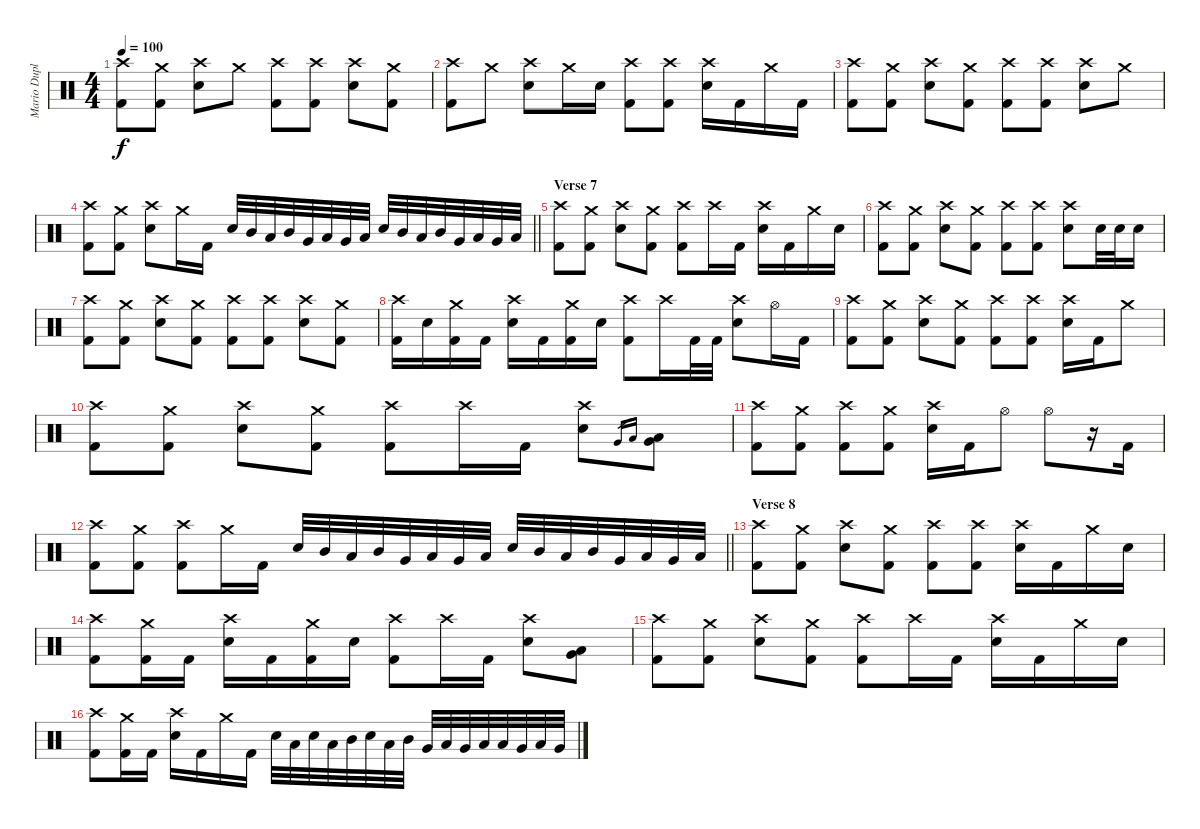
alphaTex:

\track ("Mario Duplantier - DRUMS" "Mario Dupl") {instrument percussion}
\staff {score}
\articulation defaults
\ts (4 4)
\tempo 100
\clef neutral
\ks c
("Crash high (hit)" "Kick (hit) 2").8{dy f} ("Crash medium (hit)" "Kick (hit) 2").8 ("Crash high (hit)" "Electric Snare (hit)").8 "Crash medium (hit)".8 ("Crash high (hit)" "Kick (hit) 2").8 ("Crash high (hit)" "Kick (hit) 2").8 ("Crash high (hit)" "Electric Snare (hit)").8 ("Crash medium (hit)" "Kick (hit) 2").8 |
("Crash high (hit)" "Kick (hit) 2").8 "Crash medium (hit)".8 ("Crash high (hit)" "Electric Snare (hit)").8 "Crash medium (hit)".16 "Electric Snare (hit)".16 ("Crash high (hit)" "Kick (hit) 2").8 ("Crash high (hit)" "Kick (hit) 2").8 ("Crash high (hit)" "Electric Snare (hit)").16 "Kick (hit) 2".16 "Crash medium (hit)".16 "Kick (hit) 2".16 |
("Crash high (hit)" "Kick (hit) 2").8 ("Crash medium (hit)" "Kick (hit) 2").8 ("Crash high (hit)" "Electric Snare (hit)").8 ("Crash medium (hit)" "Kick (hit) 2").8 ("Crash high (hit)" "Kick (hit) 2").8 ("Crash high (hit)" "Kick (hit) 2").8 ("Crash high (hit)" "Electric Snare (hit)").8 "Crash medium (hit)".8 |
\barLineRight lightlight
("Crash high (hit)" "Kick (hit) 2").8 ("Crash medium (hit)" "Kick (hit) 2").8 ("Crash high (hit)" "Electric Snare (hit)").8 "Crash medium (hit)".16 "Kick (hit) 2".16 "Electric Snare (hit)".32 "Mid Tom (hit)".32 "Low Tom (hit)".32 "Mid Tom (hit)".32 "Very Low Tom (hit)".32 "Low Tom (hit)".32 "Very Low Tom (hit)".32 "Low Floor Tom (hit)".32 "Electric Snare (hit)".32 "Mid Tom (hit)".32 "Low Tom (hit)".32 "Mid Tom (hit)".32 "Very Low Tom (hit)".32 "Low Tom (hit)".32 "Very Low Tom (hit)".32 "Low Floor Tom (hit)".32 |
\section ("" "Verse 7")
("Crash high (hit)" "Kick (hit) 2").8 ("Crash medium (hit)" "Kick (hit) 2").8 ("Crash high (hit)" "Electric Snare (hit)").8 ("Crash medium (hit)" "Kick (hit) 2").8 ("Crash high (hit)" "Kick (hit) 2").8 "Crash high (hit)".16 "Kick (hit) 2".16 ("Crash high (hit)" "Electric Snare (hit)").16 "Kick (hit) 2".16 "Crash medium (hit)".16 "Electric Snare (hit)".16 |
("Crash high (hit)" "Kick (hit) 2").8 ("Crash medium (hit)" "Kick (hit) 2").8 ("Crash high (hit)" "Electric Snare (hit)").8 ("Crash medium (hit)" "Kick (hit) 2").8 ("Crash high (hit)" "Kick (hit) 2").8 ("Crash high (hit)" "Kick (hit) 2").8 ("Crash high (hit)" "Electric Snare (hit)").8 "Electric Snare (hit)".32 "Electric Snare (hit)".32 "Electric Snare (hit)".16 |
("Crash high (hit)" "Kick (hit) 2").8 ("Crash medium (hit)" "Kick (hit) 2").8 ("Crash high (hit)" "Electric Snare (hit)").8 ("Crash medium (hit)" "Kick (hit) 2").8 ("Crash high (hit)" "Kick (hit) 2").8 ("Crash high (hit)" "Kick (hit) 2").8 ("Crash high (hit)" "Electric Snare (hit)").8 ("Crash medium (hit)" "Kick (hit) 2").8 |
("Crash high (hit)" "Kick (hit) 2").16 "Electric Snare (hit)".16 ("Crash medium (hit)" "Kick (hit) 2").16 "Kick (hit) 2".16 ("Crash high (hit)" "Electric Snare (hit)").16 "Kick (hit) 2".16 ("Crash medium (hit)" "Kick (hit) 2").16 "Electric Snare (hit)".16 ("Crash high (hit)" "Kick (hit) 2").8 "Crash high (hit)".16 "Kick (hit) 2".32 "Kick (hit) 2".32 ("Crash high (hit)" "Electric Snare (hit)").8 "Hi-Hat (open)".16 "Kick (hit) 2".16 |
("Crash high (hit)" "Kick (hit) 2").8 ("Crash medium (hit)" "Kick (hit) 2").8 ("Crash high (hit)" "Electric Snare (hit)").8 ("Crash medium (hit)" "Kick (hit) 2").8 ("Crash high (hit)" "Kick (hit) 2").8 ("Crash high (hit)" "Kick (hit) 2").8 ("Crash high (hit)" "Electric Snare (hit)").16 "Kick (hit) 2".16 "Crash medium (hit)".8 |
("Crash high (hit)" "Kick (hit) 2").8 ("Crash medium (hit)" "Kick (hit) 2").8 ("Crash high (hit)" "Electric Snare (hit)").8 ("Crash medium (hit)" "Kick (hit) 2").8 ("Crash high (hit)" "Kick (hit) 2").8 "Crash high (hit)".16 "Kick (hit) 2".16 ("Crash high (hit)" "Electric Snare (hit)").8 "Very Low Tom (hit)".16{gr} "Low Tom (hit)".16{gr} ("Very Low Tom (hit)" "Low Tom (hit)").8 |
("Crash high (hit)" "Kick (hit) 2").8 ("Crash medium (hit)" "Kick (hit) 2").8 ("Crash high (hit)" "Kick (hit) 2").8 ("Crash medium (hit)" "Kick (hit) 2").8 ("Crash high (hit)" "Electric Snare (hit)").16 "Kick (hit) 2".16 "Hi-Hat (open)".8 "Hi-Hat (open)".8 r.16 "Kick (hit) 2".16 |
\barLineRight lightlight
("Crash high (hit)" "Kick (hit) 2").8 ("Crash medium (hit)" "Kick (hit) 2").8 ("Crash high (hit)" "Kick (hit) 2").8 "Crash medium (hit)".16 "Kick (hit) 2".16 "Electric Snare (hit)".32 "Mid Tom (hit)".32 "Low Tom (hit)".32 "Mid Tom (hit)".32 "Very Low Tom (hit)".32 "Low Tom (hit)".32 "Very Low Tom (hit)".32 "Low Floor Tom (hit)".32 "Electric Snare (hit)".32 "Mid Tom (hit)".32 "Low Tom (hit)".32 "Mid Tom (hit)".32 "Very Low Tom (hit)".32 "Low Tom (hit)".32 "Very Low Tom (hit)".32 "Low Floor Tom (hit)".32 |
\section ("" "Verse 8")
("Crash high (hit)" "Kick (hit) 2").8 ("Crash medium (hit)" "Kick (hit) 2").8 ("Crash high (hit)" "Electric Snare (hit)").8 ("Crash medium (hit)" "Kick (hit) 2").8 ("Crash high (hit)" "Kick (hit) 2").8 ("Crash high (hit)" "Kick (hit) 2").8 ("Crash high (hit)" "Electric Snare (hit)").16 "Kick (hit) 2".16 "Crash medium (hit)".16 "Electric Snare (hit)".16 |
("Crash high (hit)" "Kick (hit) 2").8 ("Crash medium (hit)" "Kick (hit) 2").16 "Kick (hit) 2".16 ("Crash high (hit)" "Electric Snare (hit)").16 "Kick (hit) 2".16 ("Crash medium (hit)" "Kick (hit) 2").16 "Electric Snare (hit)".16 ("Crash high (hit)" "Kick (hit) 2").8 "Crash high (hit)".16 "Kick (hit) 2".16 ("Crash high (hit)" "Electric Snare (hit)").8 ("Low Tom (hit)" "Very Low Tom (hit)").8 |
("Crash high (hit)" "Kick (hit) 2").8 ("Crash medium (hit)" "Kick (hit) 2").8 ("Crash high (hit)" "Electric Snare (hit)").8 ("Crash medium (hit)" "Kick (hit) 2").8 ("Crash high (hit)" "Kick (hit) 2").8 "Crash high (hit)".16 "Kick (hit) 2".16 ("Crash high (hit)" "Electric Snare (hit)").16 "Kick (hit) 2".16 "Crash medium (hit)".16 "Electric Snare (hit)".16 |
("Crash high (hit)" "Kick (hit) 2").8 ("Crash medium (hit)" "Kick (hit) 2").16 "Kick (hit) 2".16 ("Crash high (hit)" "Electric Snare (hit)").16 "Kick (hit) 2".16 "Crash medium (hit)".16 "Kick (hit) 2".16 "Electric Snare (hit)".32 "Low Tom (hit)".32 "Electric Snare (hit)".32 "Low Tom (hit)".32 "Mid Tom (hit)".32 "Electric Snare (hit)".32 "Low Tom (hit)".32 "Mid Tom (hit)".32 "Very Low Tom (hit)".32 "Low Tom (hit)".32 "Very Low Tom (hit)".32 "Low Floor Tom (hit)".32 "Low Tom (hit)".32 "Very Low Tom (hit)".32 "Low Floor Tom (hit)".32 "Very Low Tom (hit)".32
